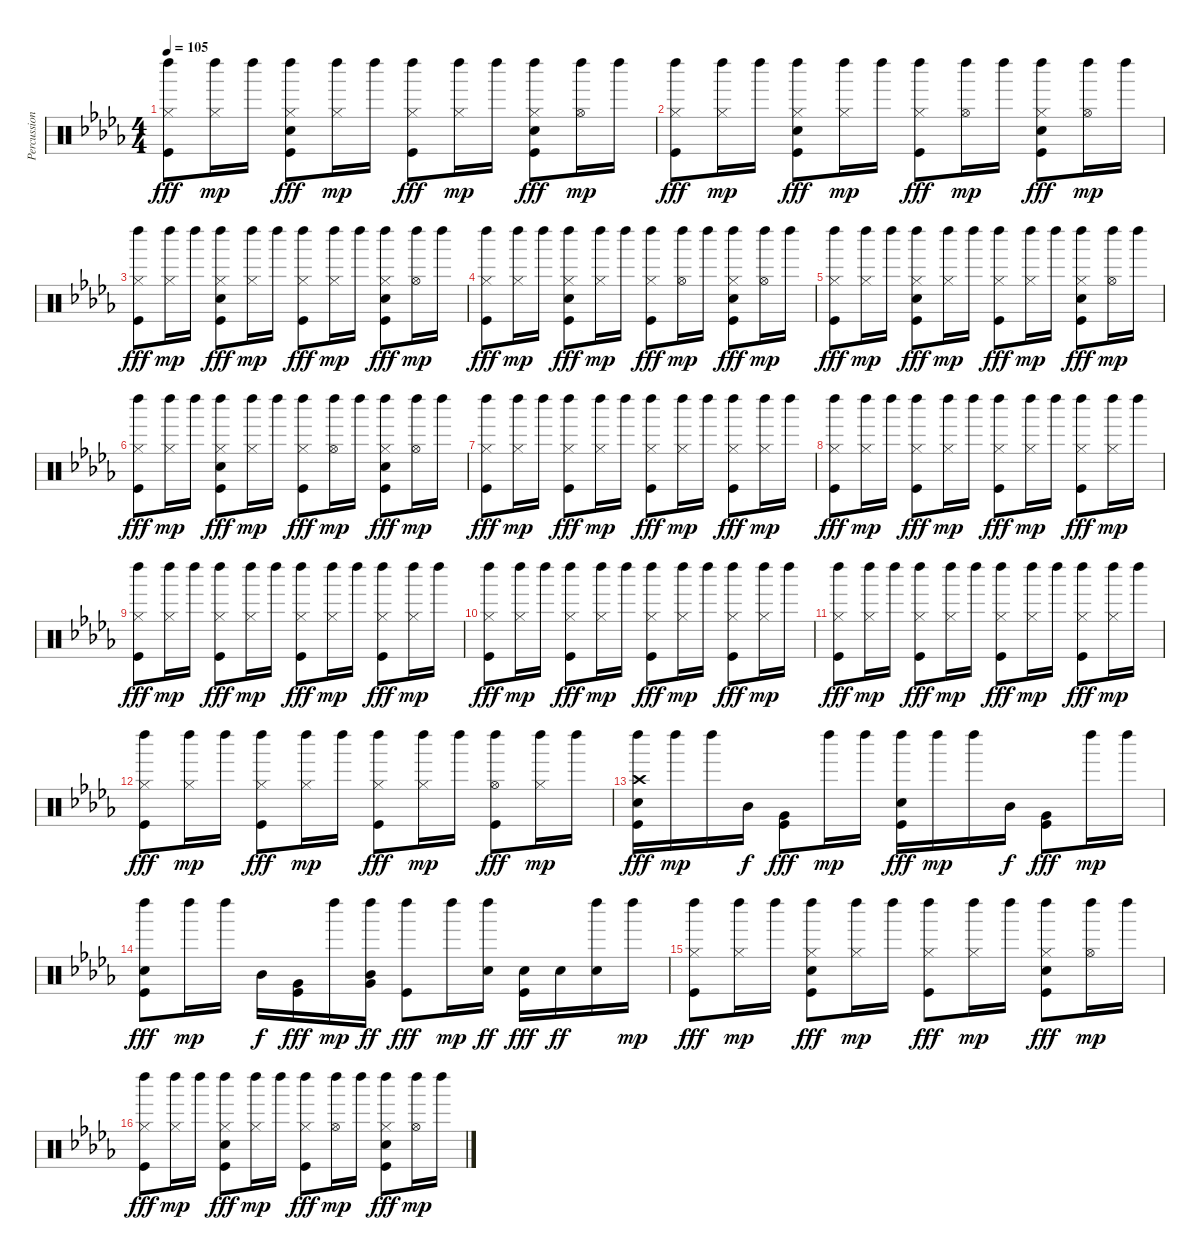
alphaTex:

\track ("Percussion" "Percussion") {instrument percussion}
\staff {score}
\articulation defaults
\ts (4 4)
\tempo 105
\clef neutral
\ks db
("Hi-Hat (closed)" "Left Maraca (hit)" "Kick (hit)").8{dy fff} ("Hi-Hat (closed)" "Left Maraca (hit)").16{dy mp} "Left Maraca (hit)".16 ("Hi-Hat (closed)" "Left Maraca (hit)" "Snare (hit) 2" "Kick (hit)").8{dy fff} ("Hi-Hat (closed)" "Left Maraca (hit)").16{dy mp} "Left Maraca (hit)".16 ("Hi-Hat (closed)" "Left Maraca (hit)" "Kick (hit)").8{dy fff} ("Hi-Hat (closed)" "Left Maraca (hit)").16{dy mp} "Left Maraca (hit)".16 ("Hi-Hat (closed)" "Left Maraca (hit)" "Snare (hit) 2" "Kick (hit)").8{dy fff} ("Hi-Hat (open)" "Left Maraca (hit)").16{dy mp} "Left Maraca (hit)".16 |
("Hi-Hat (closed)" "Left Maraca (hit)" "Kick (hit)").8{dy fff} ("Hi-Hat (closed)" "Left Maraca (hit)").16{dy mp} "Left Maraca (hit)".16 ("Hi-Hat (closed)" "Left Maraca (hit)" "Snare (hit) 2" "Kick (hit)").8{dy fff} ("Hi-Hat (closed)" "Left Maraca (hit)").16{dy mp} "Left Maraca (hit)".16 ("Hi-Hat (closed)" "Left Maraca (hit)" "Kick (hit)").8{dy fff} ("Hi-Hat (open)" "Left Maraca (hit)").16{dy mp} "Left Maraca (hit)".16 ("Hi-Hat (closed)" "Left Maraca (hit)" "Snare (hit) 2" "Kick (hit)").8{dy fff} ("Hi-Hat (open)" "Left Maraca (hit)").16{dy mp} "Left Maraca (hit)".16 |
("Hi-Hat (closed)" "Left Maraca (hit)" "Kick (hit)").8{dy fff} ("Hi-Hat (closed)" "Left Maraca (hit)").16{dy mp} "Left Maraca (hit)".16 ("Hi-Hat (closed)" "Left Maraca (hit)" "Snare (hit) 2" "Kick (hit)").8{dy fff} ("Hi-Hat (closed)" "Left Maraca (hit)").16{dy mp} "Left Maraca (hit)".16 ("Hi-Hat (closed)" "Left Maraca (hit)" "Kick (hit)").8{dy fff} ("Hi-Hat (closed)" "Left Maraca (hit)").16{dy mp} "Left Maraca (hit)".16 ("Hi-Hat (closed)" "Left Maraca (hit)" "Snare (hit) 2" "Kick (hit)").8{dy fff} ("Hi-Hat (open)" "Left Maraca (hit)").16{dy mp} "Left Maraca (hit)".16 |
("Hi-Hat (closed)" "Left Maraca (hit)" "Kick (hit)").8{dy fff} ("Hi-Hat (closed)" "Left Maraca (hit)").16{dy mp} "Left Maraca (hit)".16 ("Hi-Hat (closed)" "Left Maraca (hit)" "Snare (hit) 2" "Kick (hit)").8{dy fff} ("Hi-Hat (closed)" "Left Maraca (hit)").16{dy mp} "Left Maraca (hit)".16 ("Hi-Hat (closed)" "Left Maraca (hit)" "Kick (hit)").8{dy fff} ("Hi-Hat (open)" "Left Maraca (hit)").16{dy mp} "Left Maraca (hit)".16 ("Hi-Hat (closed)" "Left Maraca (hit)" "Snare (hit) 2" "Kick (hit)").8{dy fff} ("Hi-Hat (open)" "Left Maraca (hit)").16{dy mp} "Left Maraca (hit)".16 |
("Hi-Hat (closed)" "Left Maraca (hit)" "Kick (hit)").8{dy fff} ("Hi-Hat (closed)" "Left Maraca (hit)").16{dy mp} "Left Maraca (hit)".16 ("Hi-Hat (closed)" "Left Maraca (hit)" "Snare (hit) 2" "Kick (hit)").8{dy fff} ("Hi-Hat (closed)" "Left Maraca (hit)").16{dy mp} "Left Maraca (hit)".16 ("Hi-Hat (closed)" "Left Maraca (hit)" "Kick (hit)").8{dy fff} ("Hi-Hat (closed)" "Left Maraca (hit)").16{dy mp} "Left Maraca (hit)".16 ("Hi-Hat (closed)" "Left Maraca (hit)" "Snare (hit) 2" "Kick (hit)").8{dy fff} ("Hi-Hat (open)" "Left Maraca (hit)").16{dy mp} "Left Maraca (hit)".16 |
("Hi-Hat (closed)" "Left Maraca (hit)" "Kick (hit)").8{dy fff} ("Hi-Hat (closed)" "Left Maraca (hit)").16{dy mp} "Left Maraca (hit)".16 ("Hi-Hat (closed)" "Left Maraca (hit)" "Snare (hit) 2" "Kick (hit)").8{dy fff} ("Hi-Hat (closed)" "Left Maraca (hit)").16{dy mp} "Left Maraca (hit)".16 ("Hi-Hat (closed)" "Left Maraca (hit)" "Kick (hit)").8{dy fff} ("Hi-Hat (open)" "Left Maraca (hit)").16{dy mp} "Left Maraca (hit)".16 ("Hi-Hat (closed)" "Left Maraca (hit)" "Snare (hit) 2" "Kick (hit)").8{dy fff} ("Hi-Hat (open)" "Left Maraca (hit)").16{dy mp} "Left Maraca (hit)".16 |
("Hi-Hat (closed)" "Left Maraca (hit)" "Kick (hit)").8{dy fff} ("Hi-Hat (closed)" "Left Maraca (hit)").16{dy mp} "Left Maraca (hit)".16 ("Hi-Hat (closed)" "Left Maraca (hit)" "Kick (hit)").8{dy fff} ("Hi-Hat (closed)" "Left Maraca (hit)").16{dy mp} "Left Maraca (hit)".16 ("Hi-Hat (closed)" "Left Maraca (hit)" "Kick (hit)").8{dy fff} ("Hi-Hat (closed)" "Left Maraca (hit)").16{dy mp} "Left Maraca (hit)".16 ("Hi-Hat (closed)" "Left Maraca (hit)" "Kick (hit)").8{dy fff} ("Hi-Hat (closed)" "Left Maraca (hit)").16{dy mp} "Left Maraca (hit)".16 |
("Hi-Hat (closed)" "Left Maraca (hit)" "Kick (hit)").8{dy fff} ("Hi-Hat (closed)" "Left Maraca (hit)").16{dy mp} "Left Maraca (hit)".16 ("Hi-Hat (closed)" "Left Maraca (hit)" "Kick (hit)").8{dy fff} ("Hi-Hat (closed)" "Left Maraca (hit)").16{dy mp} "Left Maraca (hit)".16 ("Hi-Hat (closed)" "Left Maraca (hit)" "Kick (hit)").8{dy fff} ("Hi-Hat (closed)" "Left Maraca (hit)").16{dy mp} "Left Maraca (hit)".16 ("Hi-Hat (closed)" "Left Maraca (hit)" "Kick (hit)").8{dy fff} ("Hi-Hat (closed)" "Left Maraca (hit)").16{dy mp} "Left Maraca (hit)".16 |
("Hi-Hat (closed)" "Left Maraca (hit)" "Kick (hit)").8{dy fff} ("Hi-Hat (closed)" "Left Maraca (hit)").16{dy mp} "Left Maraca (hit)".16 ("Hi-Hat (closed)" "Left Maraca (hit)" "Kick (hit)").8{dy fff} ("Hi-Hat (closed)" "Left Maraca (hit)").16{dy mp} "Left Maraca (hit)".16 ("Hi-Hat (closed)" "Left Maraca (hit)" "Kick (hit)").8{dy fff} ("Hi-Hat (closed)" "Left Maraca (hit)").16{dy mp} "Left Maraca (hit)".16 ("Hi-Hat (closed)" "Left Maraca (hit)" "Kick (hit)").8{dy fff} ("Hi-Hat (closed)" "Left Maraca (hit)").16{dy mp} "Left Maraca (hit)".16 |
("Hi-Hat (closed)" "Left Maraca (hit)" "Kick (hit)").8{dy fff} ("Hi-Hat (closed)" "Left Maraca (hit)").16{dy mp} "Left Maraca (hit)".16 ("Hi-Hat (closed)" "Left Maraca (hit)" "Kick (hit)").8{dy fff} ("Hi-Hat (closed)" "Left Maraca (hit)").16{dy mp} "Left Maraca (hit)".16 ("Hi-Hat (closed)" "Left Maraca (hit)" "Kick (hit)").8{dy fff} ("Hi-Hat (closed)" "Left Maraca (hit)").16{dy mp} "Left Maraca (hit)".16 ("Hi-Hat (closed)" "Left Maraca (hit)" "Kick (hit)").8{dy fff} ("Hi-Hat (closed)" "Left Maraca (hit)").16{dy mp} "Left Maraca (hit)".16 |
("Hi-Hat (closed)" "Left Maraca (hit)" "Kick (hit)").8{dy fff} ("Hi-Hat (closed)" "Left Maraca (hit)").16{dy mp} "Left Maraca (hit)".16 ("Hi-Hat (closed)" "Left Maraca (hit)" "Kick (hit)").8{dy fff} ("Hi-Hat (closed)" "Left Maraca (hit)").16{dy mp} "Left Maraca (hit)".16 ("Hi-Hat (closed)" "Left Maraca (hit)" "Kick (hit)").8{dy fff} ("Hi-Hat (closed)" "Left Maraca (hit)").16{dy mp} "Left Maraca (hit)".16 ("Hi-Hat (closed)" "Left Maraca (hit)" "Kick (hit)").8{dy fff} ("Hi-Hat (closed)" "Left Maraca (hit)").16{dy mp} "Left Maraca (hit)".16 |
("Hi-Hat (closed)" "Left Maraca (hit)" "Kick (hit)").8{dy fff} ("Hi-Hat (closed)" "Left Maraca (hit)").16{dy mp} "Left Maraca (hit)".16 ("Hi-Hat (closed)" "Left Maraca (hit)" "Kick (hit)").8{dy fff} ("Hi-Hat (closed)" "Left Maraca (hit)").16{dy mp} "Left Maraca (hit)".16 ("Hi-Hat (closed)" "Left Maraca (hit)" "Kick (hit)").8{dy fff} ("Hi-Hat (closed)" "Left Maraca (hit)").16{dy mp} "Left Maraca (hit)".16 ("Hi-Hat (open)" "Left Maraca (hit)" "Kick (hit)").8{dy fff} ("Hi-Hat (closed)" "Left Maraca (hit)").16{dy mp} "Left Maraca (hit)".16 |
("Crash high (hit)" "Left Maraca (hit)" "Snare (hit) 2" "Kick (hit)").16{dy fff} "Left Maraca (hit)".16{dy mp} "Left Maraca (hit)".16 "Mid Tom (hit)".16{dy f} ("Very Low Tom (hit)" "Kick (hit)").8{dy fff} "Left Maraca (hit)".16{dy mp} "Left Maraca (hit)".16 ("Left Maraca (hit)" "Snare (hit) 2" "Kick (hit)").16{dy fff} "Left Maraca (hit)".16{dy mp} "Left Maraca (hit)".16 "Mid Tom (hit)".16{dy f} ("Very Low Tom (hit)" "Kick (hit)").8{dy fff} "Left Maraca (hit)".16{dy mp} "Left Maraca (hit)".16 |
("Left Maraca (hit)" "Snare (hit) 2" "Kick (hit)").8{dy fff} "Left Maraca (hit)".16{dy mp} "Left Maraca (hit)".16 "Mid Tom (hit)".16{dy f} ("Very Low Tom (hit)" "Kick (hit)").16{dy fff} "Left Maraca (hit)".16{dy mp} ("Left Maraca (hit)" "Mid Tom (hit)" "Very Low Tom (hit)").16{dy ff} ("Left Maraca (hit)" "Kick (hit)").8{dy fff} "Left Maraca (hit)".16{dy mp} ("Left Maraca (hit)" "Snare (hit) 2").16{dy ff} ("Snare (hit) 2" "Kick (hit)").16{dy fff} "Snare (hit) 2".16{dy ff} ("Left Maraca (hit)" "Snare (hit) 2").16 "Left Maraca (hit)".16{dy mp} |
("Hi-Hat (closed)" "Left Maraca (hit)" "Kick (hit)").8{dy fff} ("Hi-Hat (closed)" "Left Maraca (hit)").16{dy mp} "Left Maraca (hit)".16 ("Hi-Hat (closed)" "Left Maraca (hit)" "Snare (hit) 2" "Kick (hit)").8{dy fff} ("Hi-Hat (closed)" "Left Maraca (hit)").16{dy mp} "Left Maraca (hit)".16 ("Hi-Hat (closed)" "Left Maraca (hit)" "Kick (hit)").8{dy fff} ("Hi-Hat (closed)" "Left Maraca (hit)").16{dy mp} "Left Maraca (hit)".16 ("Hi-Hat (closed)" "Left Maraca (hit)" "Snare (hit) 2" "Kick (hit)").8{dy fff} ("Hi-Hat (open)" "Left Maraca (hit)").16{dy mp} "Left Maraca (hit)".16 |
("Hi-Hat (closed)" "Left Maraca (hit)" "Kick (hit)").8{dy fff} ("Hi-Hat (closed)" "Left Maraca (hit)").16{dy mp} "Left Maraca (hit)".16 ("Hi-Hat (closed)" "Left Maraca (hit)" "Snare (hit) 2" "Kick (hit)").8{dy fff} ("Hi-Hat (closed)" "Left Maraca (hit)").16{dy mp} "Left Maraca (hit)".16 ("Hi-Hat (closed)" "Left Maraca (hit)" "Kick (hit)").8{dy fff} ("Hi-Hat (open)" "Left Maraca (hit)").16{dy mp} "Left Maraca (hit)".16 ("Hi-Hat (closed)" "Left Maraca (hit)" "Snare (hit) 2" "Kick (hit)").8{dy fff} ("Hi-Hat (open)" "Left Maraca (hit)").16{dy mp} "Left Maraca (hit)".16
